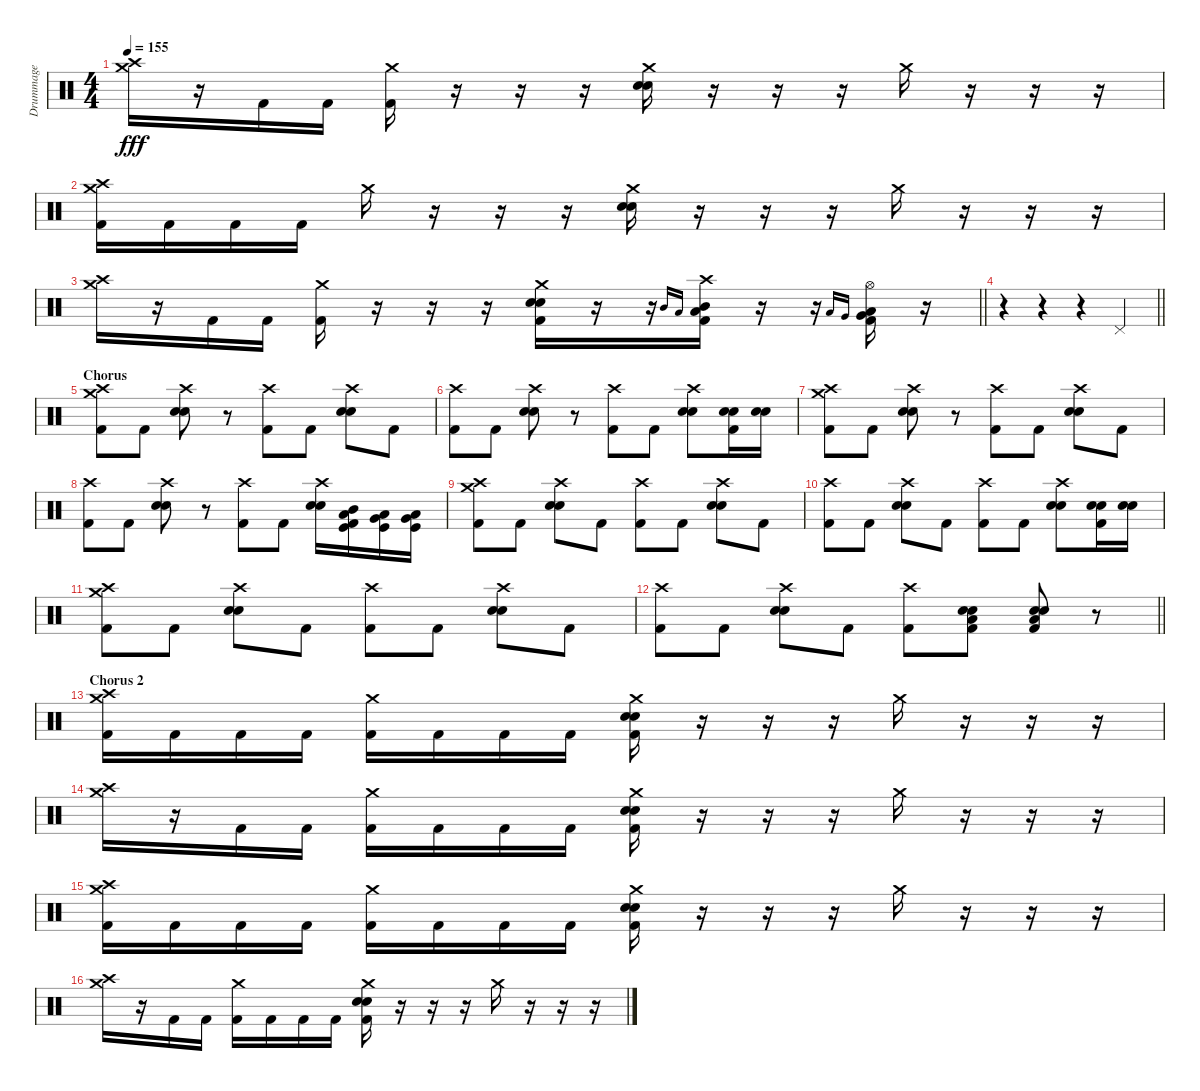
\track ("Drummage" "Drummage") {instrument percussion}
\staff {score}
\articulation defaults
\ts (4 4)
\tempo 155
\clef neutral
\ks c
("Crash high (hit)" "Crash medium (hit)").16{dy fff} r.16 "Kick (hit) 2".16 "Kick (hit) 2".16 ("Crash medium (hit)" "Kick (hit) 2").16 r.16 r.16 r.16 ("Crash medium (hit)" "Snare (hit) 2" "Electric Snare (hit)").16 r.16 r.16 r.16 "Crash medium (hit)".16 r.16 r.16 r.16 |
("Crash high (hit)" "Crash medium (hit)" "Kick (hit) 2").16 "Kick (hit) 2".16 "Kick (hit) 2".16 "Kick (hit) 2".16 "Crash medium (hit)".16 r.16 r.16 r.16 ("Crash medium (hit)" "Snare (hit) 2" "Electric Snare (hit)").16 r.16 r.16 r.16 "Crash medium (hit)".16 r.16 r.16 r.16 |
\barLineRight lightlight
("Crash high (hit)" "Crash medium (hit)").16 r.16 "Kick (hit) 2".16 "Kick (hit) 2".16 ("Crash medium (hit)" "Kick (hit) 2").16 r.16 r.16 r.16 ("Crash medium (hit)" "Snare (hit) 2" "Electric Snare (hit)" "Kick (hit) 2").16 r.16 r.16 "Mid Tom (hit)".16{gr onbeat} "Low Tom (hit)".16{gr onbeat} ("Crash high (hit)" "Mid Tom (hit)" "Low Tom (hit)" "Kick (hit) 2").16 r.16 r.16 "Low Tom (hit)".16{gr onbeat} "Very Low Tom (hit)".16{gr onbeat} ("Hi-Hat (open)" "Low Tom (hit)" "Very Low Tom (hit)" "Kick (hit) 2").16 r.16 |
\section ("" "")
\barLineRight lightlight
r.4 r.4 r.4 "Pedal Hi-Hat (hit)".4 |
\section ("" "Chorus")
("Crash medium (hit)" "Crash high (hit)" "Kick (hit) 2").8 "Kick (hit) 2".8 ("Crash high (hit)" "Snare (hit) 2" "Electric Snare (hit)").8 r.8 ("Crash high (hit)" "Kick (hit) 2").8 "Kick (hit) 2".8 ("Crash high (hit)" "Snare (hit) 2" "Electric Snare (hit)").8 "Kick (hit) 2".8 |
("Crash high (hit)" "Kick (hit) 2").8 "Kick (hit) 2".8 ("Crash high (hit)" "Snare (hit) 2" "Electric Snare (hit)").8 r.8 ("Crash high (hit)" "Kick (hit) 2").8 "Kick (hit) 2".8 ("Crash high (hit)" "Snare (hit) 2" "Electric Snare (hit)").8 ("Snare (hit) 2" "Electric Snare (hit)" "Kick (hit) 2").16 ("Snare (hit) 2" "Electric Snare (hit)").16 |
("Crash medium (hit)" "Crash high (hit)" "Kick (hit) 2").8 "Kick (hit) 2".8 ("Crash high (hit)" "Snare (hit) 2" "Electric Snare (hit)").8 r.8 ("Crash high (hit)" "Kick (hit) 2").8 "Kick (hit) 2".8 ("Crash high (hit)" "Snare (hit) 2" "Electric Snare (hit)").8 "Kick (hit) 2".8 |
("Crash high (hit)" "Kick (hit) 2").8 "Kick (hit) 2".8 ("Crash high (hit)" "Snare (hit) 2" "Electric Snare (hit)").8 r.8 ("Crash high (hit)" "Kick (hit) 2").8 "Kick (hit) 2".8 ("Crash high (hit)" "Snare (hit) 2" "Electric Snare (hit)").16 ("Low Tom (hit)" "Mid Tom (hit)" "Kick (hit)" "Kick (hit) 2").16 ("Very Low Tom (hit)" "Low Tom (hit)" "Kick (hit)").16 ("Low Floor Tom (hit)" "Very Low Tom (hit)" "Kick (hit)").16 |
("Crash medium (hit)" "Crash high (hit)" "Kick (hit) 2").8 "Kick (hit) 2".8 ("Crash high (hit)" "Snare (hit) 2" "Electric Snare (hit)").8 "Kick (hit) 2".8 ("Crash high (hit)" "Kick (hit) 2").8 "Kick (hit) 2".8 ("Crash high (hit)" "Snare (hit) 2" "Electric Snare (hit)").8 "Kick (hit) 2".8 |
("Crash high (hit)" "Kick (hit) 2").8 "Kick (hit) 2".8 ("Crash high (hit)" "Snare (hit) 2" "Electric Snare (hit)").8 "Kick (hit) 2".8 ("Crash high (hit)" "Kick (hit) 2").8 "Kick (hit) 2".8 ("Crash high (hit)" "Snare (hit) 2" "Electric Snare (hit)").8 ("Snare (hit) 2" "Electric Snare (hit)" "Kick (hit) 2").16 ("Snare (hit) 2" "Electric Snare (hit)").16 |
("Crash medium (hit)" "Crash high (hit)" "Kick (hit) 2").8 "Kick (hit) 2".8 ("Crash high (hit)" "Snare (hit) 2" "Electric Snare (hit)").8 "Kick (hit) 2".8 ("Crash high (hit)" "Kick (hit) 2").8 "Kick (hit) 2".8 ("Crash high (hit)" "Snare (hit) 2" "Electric Snare (hit)").8 "Kick (hit) 2".8 |
\barLineRight lightlight
("Crash high (hit)" "Kick (hit) 2").8 "Kick (hit) 2".8 ("Crash high (hit)" "Snare (hit) 2" "Electric Snare (hit)").8 "Kick (hit) 2".8 ("Crash high (hit)" "Kick (hit) 2").8 ("Snare (hit) 2" "Electric Snare (hit)" "Low Floor Tom (hit)" "Kick (hit) 2").8 ("Snare (hit) 2" "Electric Snare (hit)" "Low Floor Tom (hit)" "Kick (hit) 2").8 r.8 |
\section ("" "Chorus 2")
("Crash high (hit)" "Crash medium (hit)" "Kick (hit) 2").16 "Kick (hit) 2".16 "Kick (hit) 2".16 "Kick (hit) 2".16 ("Crash medium (hit)" "Kick (hit) 2").16 "Kick (hit) 2".16 "Kick (hit) 2".16 "Kick (hit) 2".16 ("Crash medium (hit)" "Electric Snare (hit)" "Snare (hit) 2" "Kick (hit) 2").16 r.16 r.16 r.16 "Crash medium (hit)".16 r.16 r.16 r.16 |
("Crash high (hit)" "Crash medium (hit)").16 r.16 "Kick (hit) 2".16 "Kick (hit) 2".16 ("Crash medium (hit)" "Kick (hit) 2").16 "Kick (hit) 2".16 "Kick (hit) 2".16 "Kick (hit) 2".16 ("Crash medium (hit)" "Electric Snare (hit)" "Snare (hit) 2" "Kick (hit) 2").16 r.16 r.16 r.16 "Crash medium (hit)".16 r.16 r.16 r.16 |
("Crash high (hit)" "Crash medium (hit)" "Kick (hit) 2").16 "Kick (hit) 2".16 "Kick (hit) 2".16 "Kick (hit) 2".16 ("Crash medium (hit)" "Kick (hit) 2").16 "Kick (hit) 2".16 "Kick (hit) 2".16 "Kick (hit) 2".16 ("Crash medium (hit)" "Electric Snare (hit)" "Snare (hit) 2" "Kick (hit) 2").16 r.16 r.16 r.16 "Crash medium (hit)".16 r.16 r.16 r.16 |
("Crash high (hit)" "Crash medium (hit)").16 r.16 "Kick (hit) 2".16 "Kick (hit) 2".16 ("Crash medium (hit)" "Kick (hit) 2").16 "Kick (hit) 2".16 "Kick (hit) 2".16 "Kick (hit) 2".16 ("Crash medium (hit)" "Electric Snare (hit)" "Snare (hit) 2" "Kick (hit) 2").16 r.16 r.16 r.16 "Crash medium (hit)".16 r.16 r.16 r.16
